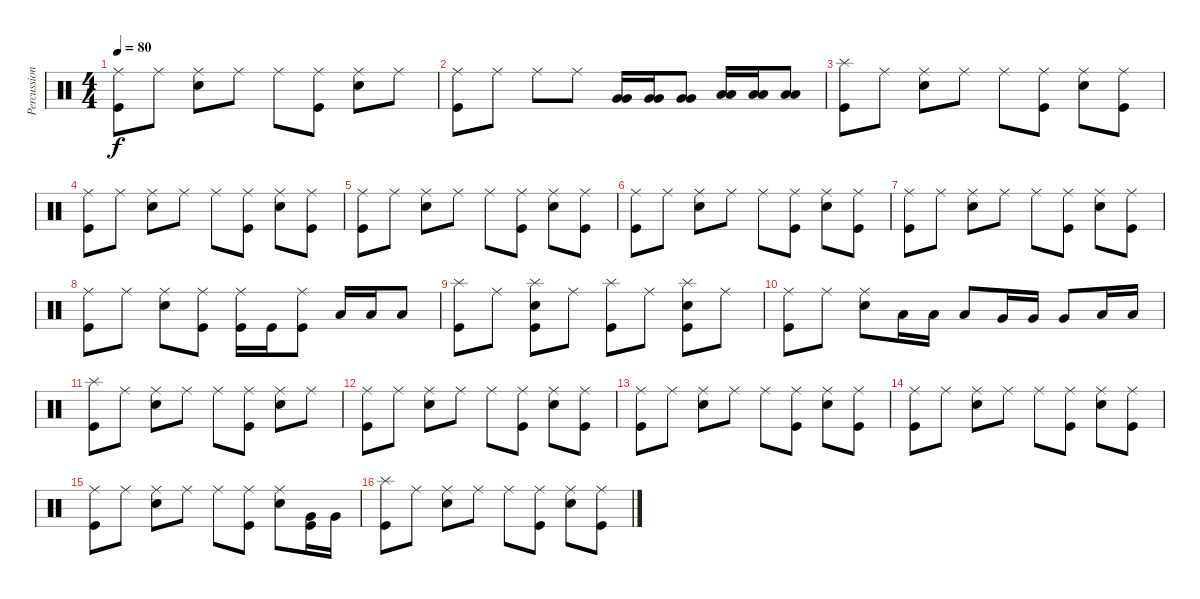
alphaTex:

\track ("Percussions" "Percussion") {instrument percussion}
\staff {score}
\articulation defaults
\ts (4 4)
\tempo 80
\clef neutral
\ks c
("Ride (middle)" "Kick (hit)").8{dy f} "Ride (middle)".8 ("Ride (middle)" "Snare (hit) 2").8 "Ride (middle)".8 "Ride (middle)".8 ("Ride (middle)" "Kick (hit)").8 ("Ride (middle)" "Snare (hit) 2").8 "Ride (middle)".8 |
("Ride (middle)" "Kick (hit)").8 "Ride (middle)".8 "Ride (middle)".8 "Ride (middle)".8 ("Very Low Tom (hit)" "Very Low Tom (hit)").16 ("Very Low Tom (hit)" "Very Low Tom (hit)").16 ("Very Low Tom (hit)" "Very Low Tom (hit)").8 ("Low Floor Tom (hit)" "Low Floor Tom (hit)").16 ("Low Floor Tom (hit)" "Low Floor Tom (hit)").16 ("Low Floor Tom (hit)" "Low Floor Tom (hit)").8 |
("Splash (hit)" "Kick (hit)").8 "Ride (middle)".8 ("Ride (middle)" "Snare (hit) 2").8 "Ride (middle)".8 "Ride (middle)".8 ("Ride (middle)" "Kick (hit)").8 ("Ride (middle)" "Snare (hit) 2").8 ("Ride (middle)" "Kick (hit)").8 |
("Ride (middle)" "Kick (hit)").8 "Ride (middle)".8 ("Ride (middle)" "Snare (hit) 2").8 "Ride (middle)".8 "Ride (middle)".8 ("Ride (middle)" "Kick (hit)").8 ("Ride (middle)" "Snare (hit) 2").8 ("Ride (middle)" "Kick (hit)").8 |
("Ride (middle)" "Kick (hit)").8 "Ride (middle)".8 ("Ride (middle)" "Snare (hit) 2").8 "Ride (middle)".8 "Ride (middle)".8 ("Ride (middle)" "Kick (hit)").8 ("Ride (middle)" "Snare (hit) 2").8 ("Ride (middle)" "Kick (hit)").8 |
("Ride (middle)" "Kick (hit)").8 "Ride (middle)".8 ("Ride (middle)" "Snare (hit) 2").8 "Ride (middle)".8 "Ride (middle)".8 ("Ride (middle)" "Kick (hit)").8 ("Ride (middle)" "Snare (hit) 2").8 ("Ride (middle)" "Kick (hit)").8 |
("Ride (middle)" "Kick (hit)").8 "Ride (middle)".8 ("Ride (middle)" "Snare (hit) 2").8 "Ride (middle)".8 "Ride (middle)".8 ("Ride (middle)" "Kick (hit)").8 ("Ride (middle)" "Snare (hit) 2").8 ("Ride (middle)" "Kick (hit)").8 |
("Ride (middle)" "Kick (hit)").8 "Ride (middle)".8 ("Ride (middle)" "Snare (hit) 2").8 ("Ride (middle)" "Kick (hit)").8 ("Ride (middle)" "Kick (hit)").16 "Kick (hit)".16 ("Ride (middle)" "Kick (hit)").8 "Low Tom (hit)".16 "Low Tom (hit)".16 "Low Tom (hit)".8 |
("Splash (hit)" "Kick (hit)").8 "Ride (middle)".8 ("Splash (hit)" "Snare (hit) 2" "Kick (hit)").8 "Ride (middle)".8 ("Splash (hit)" "Kick (hit)").8 "Ride (middle)".8 ("Splash (hit)" "Snare (hit) 2" "Kick (hit)").8 "Ride (middle)".8 |
("Ride (middle)" "Kick (hit)").8 "Ride (middle)".8 ("Ride (middle)" "Snare (hit) 2").8 "Low Tom (hit)".16 "Low Tom (hit)".16 "Low Tom (hit)".8 "Very Low Tom (hit)".16 "Very Low Tom (hit)".16 "Very Low Tom (hit)".8 "Low Floor Tom (hit)".16 "Low Floor Tom (hit)".16 |
("Splash (hit)" "Kick (hit)").8 "Ride (middle)".8 ("Ride (middle)" "Snare (hit) 2").8 "Ride (middle)".8 "Ride (middle)".8 ("Ride (middle)" "Kick (hit)").8 ("Ride (middle)" "Snare (hit) 2").8 "Ride (middle)".8 |
("Ride (middle)" "Kick (hit)").8 "Ride (middle)".8 ("Ride (middle)" "Snare (hit) 2").8 "Ride (middle)".8 "Ride (middle)".8 ("Ride (middle)" "Kick (hit)").8 ("Ride (middle)" "Snare (hit) 2").8 ("Ride (middle)" "Kick (hit)").8 |
("Ride (middle)" "Kick (hit)").8 "Ride (middle)".8 ("Ride (middle)" "Snare (hit) 2").8 "Ride (middle)".8 "Ride (middle)".8 ("Ride (middle)" "Kick (hit)").8 ("Ride (middle)" "Snare (hit) 2").8 ("Ride (middle)" "Kick (hit)").8 |
("Ride (middle)" "Kick (hit)").8 "Ride (middle)".8 ("Ride (middle)" "Snare (hit) 2").8 "Ride (middle)".8 "Ride (middle)".8 ("Ride (middle)" "Kick (hit)").8 ("Ride (middle)" "Snare (hit) 2").8 ("Ride (middle)" "Kick (hit)").8 |
("Ride (middle)" "Kick (hit)").8 "Ride (middle)".8 ("Ride (middle)" "Snare (hit) 2").8 "Ride (middle)".8 "Ride (middle)".8 ("Ride (middle)" "Kick (hit)").8 ("Ride (middle)" "Snare (hit) 2").8 ("Very Low Tom (hit)" "Kick (hit)").16 "Very Low Tom (hit)".16 |
("Splash (hit)" "Kick (hit)").8 "Ride (middle)".8 ("Ride (middle)" "Snare (hit) 2").8 "Ride (middle)".8 "Ride (middle)".8 ("Ride (middle)" "Kick (hit)").8 ("Ride (middle)" "Snare (hit) 2").8 ("Ride (middle)" "Kick (hit)").8
